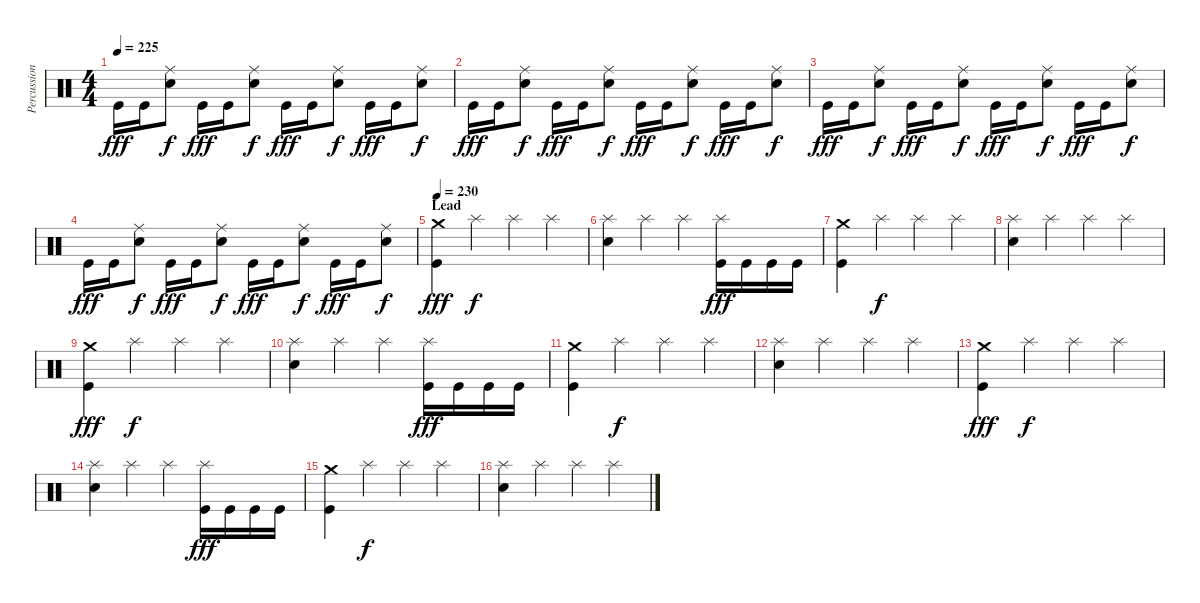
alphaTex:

\track ("Percussion" "Percussion") {instrument percussion}
\staff {score}
\articulation defaults
\ts (4 4)
\tempo 225
\clef neutral
\ks c "Kick (hit)".16{dy fff} "Kick (hit)".16
("Ride (middle)" "Electric Snare (hit)").8{dy f} "Kick (hit)".16{dy fff} "Kick (hit)".16 ("Ride (middle)" "Electric Snare (hit)").8{dy f} "Kick (hit)".16{dy fff} "Kick (hit)".16 ("Ride (middle)" "Electric Snare (hit)").8{dy f} "Kick (hit)".16{dy fff} "Kick (hit)".16 ("Ride (middle)" "Electric Snare (hit)").8{dy f} |
"Kick (hit)".16{dy fff} "Kick (hit)".16 ("Ride (middle)" "Electric Snare (hit)").8{dy f} "Kick (hit)".16{dy fff} "Kick (hit)".16 ("Ride (middle)" "Electric Snare (hit)").8{dy f} "Kick (hit)".16{dy fff} "Kick (hit)".16 ("Ride (middle)" "Electric Snare (hit)").8{dy f} "Kick (hit)".16{dy fff} "Kick (hit)".16 ("Ride (middle)" "Electric Snare (hit)").8{dy f} |
"Kick (hit)".16{dy fff} "Kick (hit)".16 ("Ride (middle)" "Electric Snare (hit)").8{dy f} "Kick (hit)".16{dy fff} "Kick (hit)".16 ("Ride (middle)" "Electric Snare (hit)").8{dy f} "Kick (hit)".16{dy fff} "Kick (hit)".16 ("Ride (middle)" "Electric Snare (hit)").8{dy f} "Kick (hit)".16{dy fff} "Kick (hit)".16 ("Ride (middle)" "Electric Snare (hit)").8{dy f} |
"Kick (hit)".16{dy fff} "Kick (hit)".16 ("Ride (middle)" "Electric Snare (hit)").8{dy f} "Kick (hit)".16{dy fff} "Kick (hit)".16 ("Ride (middle)" "Electric Snare (hit)").8{dy f} "Kick (hit)".16{dy fff} "Kick (hit)".16 ("Ride (middle)" "Electric Snare (hit)").8{dy f} "Kick (hit)".16{dy fff} "Kick (hit)".16 ("Ride (middle)" "Electric Snare (hit)").8{dy f} |
\section ("" "Lead")
\tempo 230
("Crash medium (hit)" "Kick (hit)").4{dy fff} "Splash (hit)".4{dy f} "Splash (hit)".4 "Splash (hit)".4 |
("Splash (hit)" "Electric Snare (hit)").4 "Splash (hit)".4 "Splash (hit)".4 ("Splash (hit)" "Kick (hit)").16{dy fff} "Kick (hit)".16 "Kick (hit)".16 "Kick (hit)".16 |
("Crash medium (hit)" "Kick (hit)").4 "Splash (hit)".4{dy f} "Splash (hit)".4 "Splash (hit)".4 |
("Splash (hit)" "Electric Snare (hit)").4 "Splash (hit)".4 "Splash (hit)".4 "Splash (hit)".4 |
("Crash medium (hit)" "Kick (hit)").4{dy fff} "Splash (hit)".4{dy f} "Splash (hit)".4 "Splash (hit)".4 |
("Splash (hit)" "Electric Snare (hit)").4 "Splash (hit)".4 "Splash (hit)".4 ("Splash (hit)" "Kick (hit)").16{dy fff} "Kick (hit)".16 "Kick (hit)".16 "Kick (hit)".16 |
("Crash medium (hit)" "Kick (hit)").4 "Splash (hit)".4{dy f} "Splash (hit)".4 "Splash (hit)".4 |
("Splash (hit)" "Electric Snare (hit)").4 "Splash (hit)".4 "Splash (hit)".4 "Splash (hit)".4 |
("Crash medium (hit)" "Kick (hit)").4{dy fff} "Splash (hit)".4{dy f} "Splash (hit)".4 "Splash (hit)".4 |
("Splash (hit)" "Electric Snare (hit)").4 "Splash (hit)".4 "Splash (hit)".4 ("Splash (hit)" "Kick (hit)").16{dy fff} "Kick (hit)".16 "Kick (hit)".16 "Kick (hit)".16 |
("Crash medium (hit)" "Kick (hit)").4 "Splash (hit)".4{dy f} "Splash (hit)".4 "Splash (hit)".4 |
("Splash (hit)" "Electric Snare (hit)").4 "Splash (hit)".4 "Splash (hit)".4 "Splash (hit)".4
